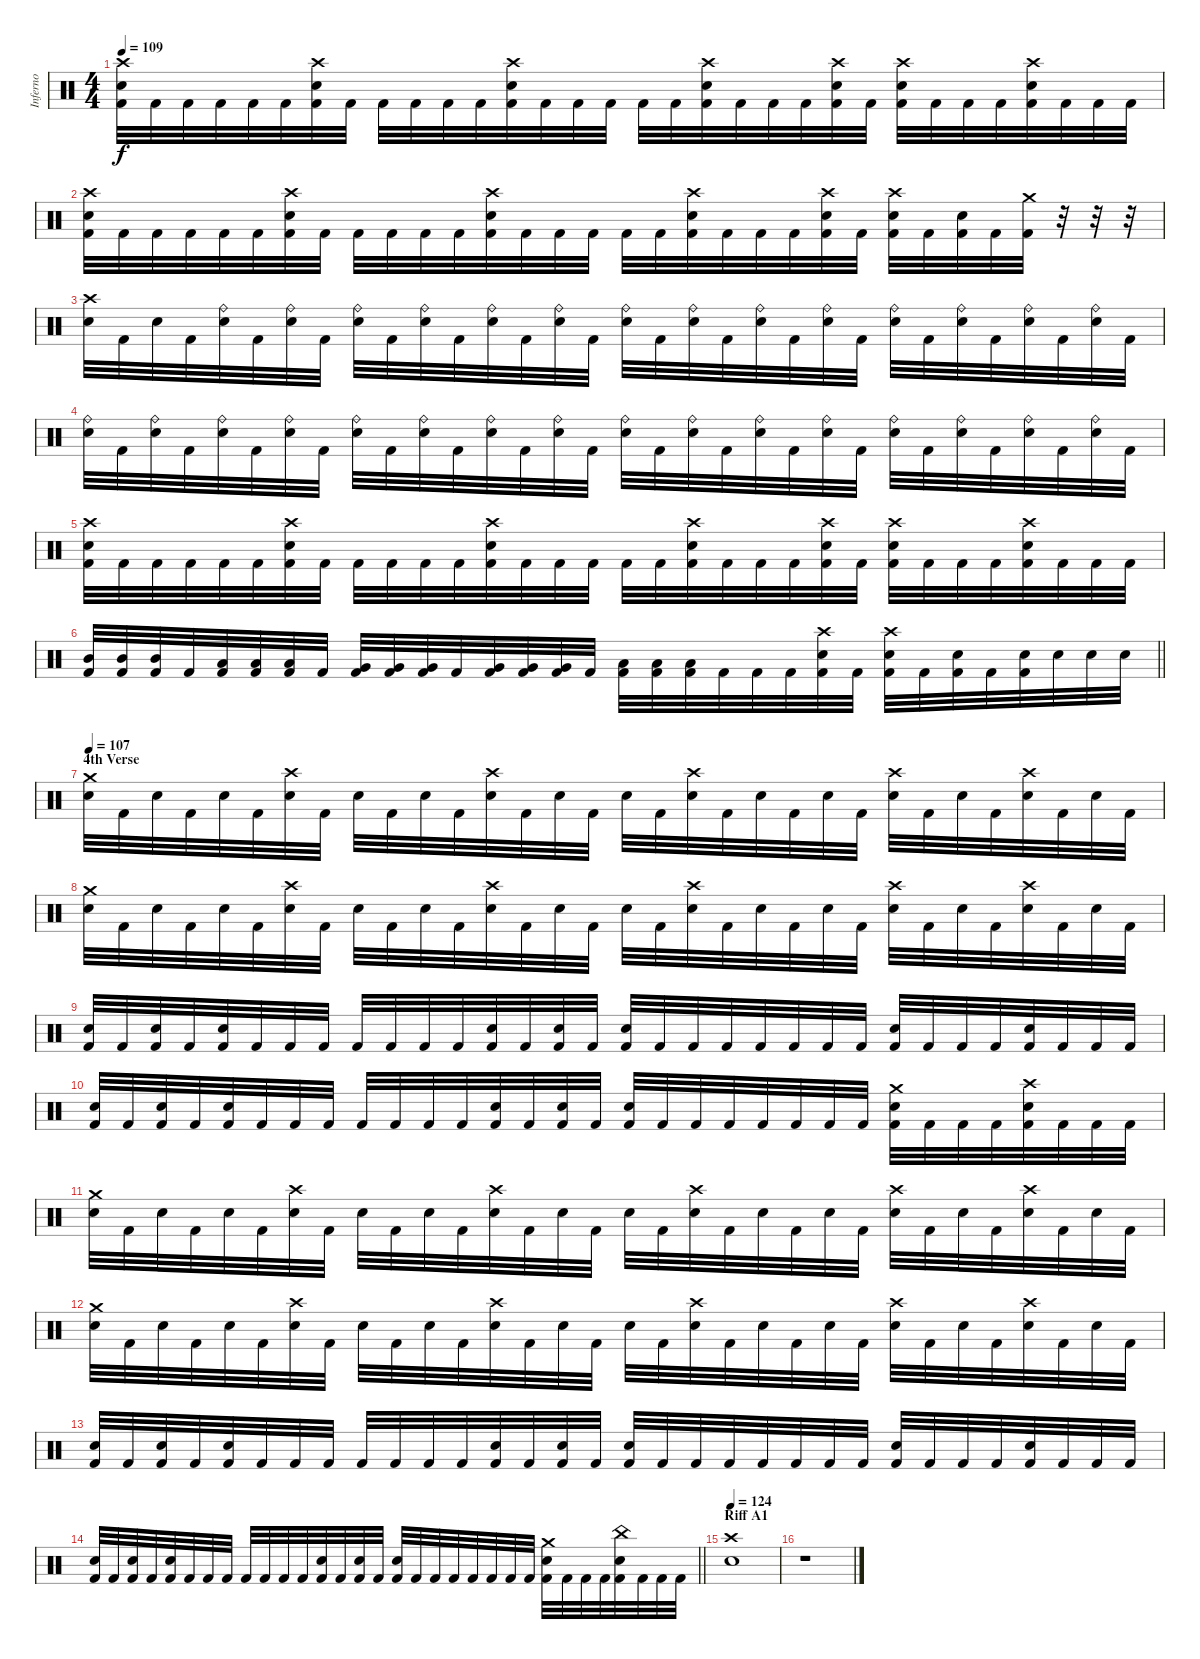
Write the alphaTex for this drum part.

\track ("Inferno" "Inferno") {instrument percussion}
\staff {score}
\articulation defaults
\ts (4 4)
\tempo 109
\clef neutral
\ks c
("Crash high (hit)" "Snare (hit) 2" "Kick (hit) 2").32{dy f} "Kick (hit) 2".32 "Kick (hit) 2".32 "Kick (hit) 2".32 "Kick (hit) 2".32 "Kick (hit) 2".32 ("Crash high (hit)" "Snare (hit) 2" "Kick (hit) 2").32 "Kick (hit) 2".32 "Kick (hit) 2".32 "Kick (hit) 2".32 "Kick (hit) 2".32 "Kick (hit) 2".32 ("Crash high (hit)" "Snare (hit) 2" "Kick (hit) 2").32 "Kick (hit) 2".32 "Kick (hit) 2".32 "Kick (hit) 2".32 "Kick (hit) 2".32 "Kick (hit) 2".32 ("Crash high (hit)" "Snare (hit) 2" "Kick (hit) 2").32 "Kick (hit) 2".32 "Kick (hit) 2".32 "Kick (hit) 2".32 ("Crash high (hit)" "Snare (hit) 2" "Kick (hit) 2").32 "Kick (hit) 2".32 ("Crash high (hit)" "Snare (hit) 2" "Kick (hit) 2").32 "Kick (hit) 2".32 "Kick (hit) 2".32 "Kick (hit) 2".32 ("Crash high (hit)" "Snare (hit) 2" "Kick (hit) 2").32 "Kick (hit) 2".32 "Kick (hit) 2".32 "Kick (hit) 2".32 |
("Crash high (hit)" "Snare (hit) 2" "Kick (hit) 2").32 "Kick (hit) 2".32 "Kick (hit) 2".32 "Kick (hit) 2".32 "Kick (hit) 2".32 "Kick (hit) 2".32 ("Crash high (hit)" "Snare (hit) 2" "Kick (hit) 2").32 "Kick (hit) 2".32 "Kick (hit) 2".32 "Kick (hit) 2".32 "Kick (hit) 2".32 "Kick (hit) 2".32 ("Crash high (hit)" "Snare (hit) 2" "Kick (hit) 2").32 "Kick (hit) 2".32 "Kick (hit) 2".32 "Kick (hit) 2".32 "Kick (hit) 2".32 "Kick (hit) 2".32 ("Crash high (hit)" "Snare (hit) 2" "Kick (hit) 2").32 "Kick (hit) 2".32 "Kick (hit) 2".32 "Kick (hit) 2".32 ("Crash high (hit)" "Snare (hit) 2" "Kick (hit) 2").32 "Kick (hit) 2".32 ("Crash high (hit)" "Snare (hit) 2" "Kick (hit) 2").32 "Kick (hit) 2".32 ("Snare (hit) 2" "Kick (hit) 2").32 "Kick (hit) 2".32 ("Crash medium (hit)" "Kick (hit) 2").32 r.32 r.32 r.32 |
("Crash high (hit)" "Snare (hit) 2").32 "Kick (hit) 2".32 "Snare (hit) 2".32 "Kick (hit) 2".32 ("Ride (bell)" "Snare (hit) 2").32 "Kick (hit) 2".32 ("Ride (bell)" "Snare (hit) 2").32 "Kick (hit) 2".32 ("Ride (bell)" "Snare (hit) 2").32 "Kick (hit) 2".32 ("Ride (bell)" "Snare (hit) 2").32 "Kick (hit) 2".32 ("Ride (bell)" "Snare (hit) 2").32 "Kick (hit) 2".32 ("Ride (bell)" "Snare (hit) 2").32 "Kick (hit) 2".32 ("Ride (bell)" "Snare (hit) 2").32 "Kick (hit) 2".32 ("Ride (bell)" "Snare (hit) 2").32 "Kick (hit) 2".32 ("Ride (bell)" "Snare (hit) 2").32 "Kick (hit) 2".32 ("Ride (bell)" "Snare (hit) 2").32 "Kick (hit) 2".32 ("Ride (bell)" "Snare (hit) 2").32 "Kick (hit) 2".32 ("Ride (bell)" "Snare (hit) 2").32 "Kick (hit) 2".32 ("Ride (bell)" "Snare (hit) 2").32 "Kick (hit) 2".32 ("Ride (bell)" "Snare (hit) 2").32 "Kick (hit) 2".32 |
("Ride (bell)" "Snare (hit) 2").32 "Kick (hit) 2".32 ("Ride (bell)" "Snare (hit) 2").32 "Kick (hit) 2".32 ("Ride (bell)" "Snare (hit) 2").32 "Kick (hit) 2".32 ("Ride (bell)" "Snare (hit) 2").32 "Kick (hit) 2".32 ("Ride (bell)" "Snare (hit) 2").32 "Kick (hit) 2".32 ("Ride (bell)" "Snare (hit) 2").32 "Kick (hit) 2".32 ("Ride (bell)" "Snare (hit) 2").32 "Kick (hit) 2".32 ("Ride (bell)" "Snare (hit) 2").32 "Kick (hit) 2".32 ("Ride (bell)" "Snare (hit) 2").32 "Kick (hit) 2".32 ("Ride (bell)" "Snare (hit) 2").32 "Kick (hit) 2".32 ("Ride (bell)" "Snare (hit) 2").32 "Kick (hit) 2".32 ("Ride (bell)" "Snare (hit) 2").32 "Kick (hit) 2".32 ("Ride (bell)" "Snare (hit) 2").32 "Kick (hit) 2".32 ("Ride (bell)" "Snare (hit) 2").32 "Kick (hit) 2".32 ("Ride (bell)" "Snare (hit) 2").32 "Kick (hit) 2".32 ("Ride (bell)" "Snare (hit) 2").32 "Kick (hit) 2".32 |
("Crash high (hit)" "Snare (hit) 2" "Kick (hit) 2").32 "Kick (hit) 2".32 "Kick (hit) 2".32 "Kick (hit) 2".32 "Kick (hit) 2".32 "Kick (hit) 2".32 ("Crash high (hit)" "Snare (hit) 2" "Kick (hit) 2").32 "Kick (hit) 2".32 "Kick (hit) 2".32 "Kick (hit) 2".32 "Kick (hit) 2".32 "Kick (hit) 2".32 ("Crash high (hit)" "Snare (hit) 2" "Kick (hit) 2").32 "Kick (hit) 2".32 "Kick (hit) 2".32 "Kick (hit) 2".32 "Kick (hit) 2".32 "Kick (hit) 2".32 ("Crash high (hit)" "Snare (hit) 2" "Kick (hit) 2").32 "Kick (hit) 2".32 "Kick (hit) 2".32 "Kick (hit) 2".32 ("Crash high (hit)" "Snare (hit) 2" "Kick (hit) 2").32 "Kick (hit) 2".32 ("Crash high (hit)" "Snare (hit) 2" "Kick (hit) 2").32 "Kick (hit) 2".32 "Kick (hit) 2".32 "Kick (hit) 2".32 ("Crash high (hit)" "Snare (hit) 2" "Kick (hit) 2").32 "Kick (hit) 2".32 "Kick (hit) 2".32 "Kick (hit) 2".32 |
\barLineRight lightlight
("Mid Tom (hit)" "Kick (hit) 2").32 ("Mid Tom (hit)" "Kick (hit) 2").32 ("Mid Tom (hit)" "Kick (hit) 2").32 "Kick (hit) 2".32 ("Low Tom (hit)" "Kick (hit) 2").32 ("Low Tom (hit)" "Kick (hit) 2").32 ("Low Tom (hit)" "Kick (hit) 2").32 "Kick (hit) 2".32 ("Very Low Tom (hit)" "Kick (hit) 2").32 ("Very Low Tom (hit)" "Kick (hit) 2").32 ("Very Low Tom (hit)" "Kick (hit) 2").32 "Kick (hit) 2".32 ("Very Low Tom (hit)" "Kick (hit) 2").32 ("Very Low Tom (hit)" "Kick (hit) 2").32 ("Very Low Tom (hit)" "Kick (hit) 2").32 "Kick (hit) 2".32 ("Low Floor Tom (hit)" "Kick (hit) 2").32 ("Low Floor Tom (hit)" "Kick (hit) 2").32 ("Low Floor Tom (hit)" "Kick (hit) 2").32 "Kick (hit) 2".32 "Kick (hit) 2".32 "Kick (hit) 2".32 ("Crash high (hit)" "Snare (hit) 2" "Kick (hit) 2").32 "Kick (hit) 2".32 ("Crash high (hit)" "Snare (hit) 2" "Kick (hit) 2").32 "Kick (hit) 2".32 ("Snare (hit) 2" "Kick (hit) 2").32 "Kick (hit) 2".32 ("Snare (hit) 2" "Kick (hit) 2").32 "Snare (hit) 2".32 "Snare (hit) 2".32 "Snare (hit) 2".32 |
\section ("" "4th Verse")
\tempo 107
("Crash medium (hit)" "Snare (hit) 2").32 "Kick (hit) 2".32 "Snare (hit) 2".32 "Kick (hit) 2".32 "Snare (hit) 2".32 "Kick (hit) 2".32 ("Crash high (hit)" "Snare (hit) 2").32 "Kick (hit) 2".32 "Snare (hit) 2".32 "Kick (hit) 2".32 "Snare (hit) 2".32 "Kick (hit) 2".32 ("Crash high (hit)" "Snare (hit) 2").32 "Kick (hit) 2".32 "Snare (hit) 2".32 "Kick (hit) 2".32 "Snare (hit) 2".32 "Kick (hit) 2".32 ("Crash high (hit)" "Snare (hit) 2").32 "Kick (hit) 2".32 "Snare (hit) 2".32 "Kick (hit) 2".32 "Snare (hit) 2".32 "Kick (hit) 2".32 ("Crash high (hit)" "Snare (hit) 2").32 "Kick (hit) 2".32 "Snare (hit) 2".32 "Kick (hit) 2".32 ("Crash high (hit)" "Snare (hit) 2").32 "Kick (hit) 2".32 "Snare (hit) 2".32 "Kick (hit) 2".32 |
("Crash medium (hit)" "Snare (hit) 2").32 "Kick (hit) 2".32 "Snare (hit) 2".32 "Kick (hit) 2".32 "Snare (hit) 2".32 "Kick (hit) 2".32 ("Crash high (hit)" "Snare (hit) 2").32 "Kick (hit) 2".32 "Snare (hit) 2".32 "Kick (hit) 2".32 "Snare (hit) 2".32 "Kick (hit) 2".32 ("Crash high (hit)" "Snare (hit) 2").32 "Kick (hit) 2".32 "Snare (hit) 2".32 "Kick (hit) 2".32 "Snare (hit) 2".32 "Kick (hit) 2".32 ("Crash high (hit)" "Snare (hit) 2").32 "Kick (hit) 2".32 "Snare (hit) 2".32 "Kick (hit) 2".32 "Snare (hit) 2".32 "Kick (hit) 2".32 ("Crash high (hit)" "Snare (hit) 2").32 "Kick (hit) 2".32 "Snare (hit) 2".32 "Kick (hit) 2".32 ("Crash high (hit)" "Snare (hit) 2").32 "Kick (hit) 2".32 "Snare (hit) 2".32 "Kick (hit) 2".32 |
("Snare (hit) 2" "Kick (hit) 2").32 "Kick (hit) 2".32 ("Snare (hit) 2" "Kick (hit) 2").32 "Kick (hit) 2".32 ("Snare (hit) 2" "Kick (hit) 2").32 "Kick (hit) 2".32 "Kick (hit) 2".32 "Kick (hit) 2".32 "Kick (hit) 2".32 "Kick (hit) 2".32 "Kick (hit) 2".32 "Kick (hit) 2".32 ("Snare (hit) 2" "Kick (hit) 2").32 "Kick (hit) 2".32 ("Snare (hit) 2" "Kick (hit) 2").32 "Kick (hit) 2".32 ("Snare (hit) 2" "Kick (hit) 2").32 "Kick (hit) 2".32 "Kick (hit) 2".32 "Kick (hit) 2".32 "Kick (hit) 2".32 "Kick (hit) 2".32 "Kick (hit) 2".32 "Kick (hit) 2".32 ("Snare (hit) 2" "Kick (hit) 2").32 "Kick (hit) 2".32 "Kick (hit) 2".32 "Kick (hit) 2".32 ("Snare (hit) 2" "Kick (hit) 2").32 "Kick (hit) 2".32 "Kick (hit) 2".32 "Kick (hit) 2".32 |
("Snare (hit) 2" "Kick (hit) 2").32 "Kick (hit) 2".32 ("Snare (hit) 2" "Kick (hit) 2").32 "Kick (hit) 2".32 ("Snare (hit) 2" "Kick (hit) 2").32 "Kick (hit) 2".32 "Kick (hit) 2".32 "Kick (hit) 2".32 "Kick (hit) 2".32 "Kick (hit) 2".32 "Kick (hit) 2".32 "Kick (hit) 2".32 ("Snare (hit) 2" "Kick (hit) 2").32 "Kick (hit) 2".32 ("Snare (hit) 2" "Kick (hit) 2").32 "Kick (hit) 2".32 ("Snare (hit) 2" "Kick (hit) 2").32 "Kick (hit) 2".32 "Kick (hit) 2".32 "Kick (hit) 2".32 "Kick (hit) 2".32 "Kick (hit) 2".32 "Kick (hit) 2".32 "Kick (hit) 2".32 ("Crash medium (hit)" "Snare (hit) 2" "Kick (hit) 2").32 "Kick (hit) 2".32 "Kick (hit) 2".32 "Kick (hit) 2".32 ("Crash high (hit)" "Snare (hit) 2" "Kick (hit) 2").32 "Kick (hit) 2".32 "Kick (hit) 2".32 "Kick (hit) 2".32 |
("Crash medium (hit)" "Snare (hit) 2").32 "Kick (hit) 2".32 "Snare (hit) 2".32 "Kick (hit) 2".32 "Snare (hit) 2".32 "Kick (hit) 2".32 ("Crash high (hit)" "Snare (hit) 2").32 "Kick (hit) 2".32 "Snare (hit) 2".32 "Kick (hit) 2".32 "Snare (hit) 2".32 "Kick (hit) 2".32 ("Crash high (hit)" "Snare (hit) 2").32 "Kick (hit) 2".32 "Snare (hit) 2".32 "Kick (hit) 2".32 "Snare (hit) 2".32 "Kick (hit) 2".32 ("Crash high (hit)" "Snare (hit) 2").32 "Kick (hit) 2".32 "Snare (hit) 2".32 "Kick (hit) 2".32 "Snare (hit) 2".32 "Kick (hit) 2".32 ("Crash high (hit)" "Snare (hit) 2").32 "Kick (hit) 2".32 "Snare (hit) 2".32 "Kick (hit) 2".32 ("Crash high (hit)" "Snare (hit) 2").32 "Kick (hit) 2".32 "Snare (hit) 2".32 "Kick (hit) 2".32 |
("Crash medium (hit)" "Snare (hit) 2").32 "Kick (hit) 2".32 "Snare (hit) 2".32 "Kick (hit) 2".32 "Snare (hit) 2".32 "Kick (hit) 2".32 ("Crash high (hit)" "Snare (hit) 2").32 "Kick (hit) 2".32 "Snare (hit) 2".32 "Kick (hit) 2".32 "Snare (hit) 2".32 "Kick (hit) 2".32 ("Crash high (hit)" "Snare (hit) 2").32 "Kick (hit) 2".32 "Snare (hit) 2".32 "Kick (hit) 2".32 "Snare (hit) 2".32 "Kick (hit) 2".32 ("Crash high (hit)" "Snare (hit) 2").32 "Kick (hit) 2".32 "Snare (hit) 2".32 "Kick (hit) 2".32 "Snare (hit) 2".32 "Kick (hit) 2".32 ("Crash high (hit)" "Snare (hit) 2").32 "Kick (hit) 2".32 "Snare (hit) 2".32 "Kick (hit) 2".32 ("Crash high (hit)" "Snare (hit) 2").32 "Kick (hit) 2".32 "Snare (hit) 2".32 "Kick (hit) 2".32 |
("Snare (hit) 2" "Kick (hit) 2").32 "Kick (hit) 2".32 ("Snare (hit) 2" "Kick (hit) 2").32 "Kick (hit) 2".32 ("Snare (hit) 2" "Kick (hit) 2").32 "Kick (hit) 2".32 "Kick (hit) 2".32 "Kick (hit) 2".32 "Kick (hit) 2".32 "Kick (hit) 2".32 "Kick (hit) 2".32 "Kick (hit) 2".32 ("Snare (hit) 2" "Kick (hit) 2").32 "Kick (hit) 2".32 ("Snare (hit) 2" "Kick (hit) 2").32 "Kick (hit) 2".32 ("Snare (hit) 2" "Kick (hit) 2").32 "Kick (hit) 2".32 "Kick (hit) 2".32 "Kick (hit) 2".32 "Kick (hit) 2".32 "Kick (hit) 2".32 "Kick (hit) 2".32 "Kick (hit) 2".32 ("Snare (hit) 2" "Kick (hit) 2").32 "Kick (hit) 2".32 "Kick (hit) 2".32 "Kick (hit) 2".32 ("Snare (hit) 2" "Kick (hit) 2").32 "Kick (hit) 2".32 "Kick (hit) 2".32 "Kick (hit) 2".32 |
\barLineRight lightlight
("Snare (hit) 2" "Kick (hit) 2").32 "Kick (hit) 2".32 ("Snare (hit) 2" "Kick (hit) 2").32 "Kick (hit) 2".32 ("Snare (hit) 2" "Kick (hit) 2").32 "Kick (hit) 2".32 "Kick (hit) 2".32 "Kick (hit) 2".32 "Kick (hit) 2".32 "Kick (hit) 2".32 "Kick (hit) 2".32 "Kick (hit) 2".32 ("Snare (hit) 2" "Kick (hit) 2").32 "Kick (hit) 2".32 ("Snare (hit) 2" "Kick (hit) 2").32 "Kick (hit) 2".32 ("Snare (hit) 2" "Kick (hit) 2").32 "Kick (hit) 2".32 "Kick (hit) 2".32 "Kick (hit) 2".32 "Kick (hit) 2".32 "Kick (hit) 2".32 "Kick (hit) 2".32 "Kick (hit) 2".32 ("Crash medium (hit)" "Snare (hit) 2" "Kick (hit) 2").32 "Kick (hit) 2".32 "Kick (hit) 2".32 "Kick (hit) 2".32 ("China (hit)" "Snare (hit) 2" "Kick (hit) 2").32 "Kick (hit) 2".32 "Kick (hit) 2".32 "Kick (hit) 2".32 |
\section ("" "Riff A1")
\tempo 124
("Crash high (hit)" "Snare (hit) 2").1 |
r.1
